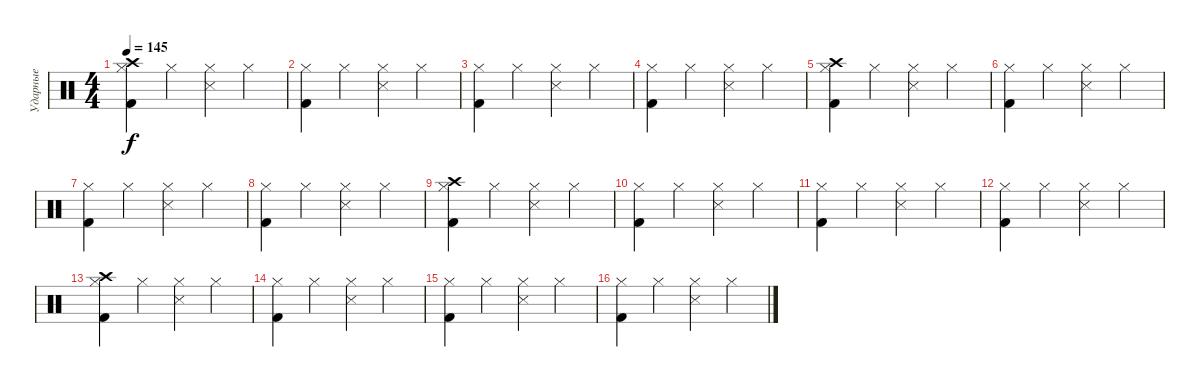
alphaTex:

\track ("Ударные" "Ударные") {instrument percussion}
\staff {score}
\articulation defaults
\ts (4 4)
\tempo 145
\clef neutral
\ks c
("Crash high (hit)" "Hi-Hat (closed)" "Kick (hit) 2").4{dy f} "Hi-Hat (closed)".4 ("Snare (side stick) 3" "Hi-Hat (closed)").4 "Hi-Hat (closed)".4 |
("Kick (hit) 2" "Hi-Hat (closed)").4 "Hi-Hat (closed)".4 ("Snare (side stick) 3" "Hi-Hat (closed)").4 "Hi-Hat (closed)".4 |
("Kick (hit) 2" "Hi-Hat (closed)").4 "Hi-Hat (closed)".4 ("Snare (side stick) 3" "Hi-Hat (closed)").4 "Hi-Hat (closed)".4 |
("Hi-Hat (closed)" "Kick (hit) 2").4 "Hi-Hat (closed)".4 ("Snare (side stick) 3" "Hi-Hat (closed)").4 "Hi-Hat (closed)".4 |
("Crash high (hit)" "Hi-Hat (closed)" "Kick (hit) 2").4 "Hi-Hat (closed)".4 ("Hi-Hat (closed)" "Snare (side stick) 3").4 "Hi-Hat (closed)".4 |
("Kick (hit) 2" "Hi-Hat (closed)").4 "Hi-Hat (closed)".4 ("Snare (side stick) 3" "Hi-Hat (closed)").4 "Hi-Hat (closed)".4 |
("Kick (hit) 2" "Hi-Hat (closed)").4 "Hi-Hat (closed)".4 ("Snare (side stick) 3" "Hi-Hat (closed)").4 "Hi-Hat (closed)".4 |
("Kick (hit) 2" "Hi-Hat (closed)").4 "Hi-Hat (closed)".4 ("Snare (side stick) 3" "Hi-Hat (closed)").4 "Hi-Hat (closed)".4 |
("Crash high (hit)" "Hi-Hat (closed)" "Kick (hit) 2").4 "Hi-Hat (closed)".4 ("Snare (side stick) 3" "Hi-Hat (closed)").4 "Hi-Hat (closed)".4 |
("Kick (hit) 2" "Hi-Hat (closed)").4 "Hi-Hat (closed)".4 ("Snare (side stick) 3" "Hi-Hat (closed)").4 "Hi-Hat (closed)".4 |
("Kick (hit) 2" "Hi-Hat (closed)").4 "Hi-Hat (closed)".4 ("Snare (side stick) 3" "Hi-Hat (closed)").4 "Hi-Hat (closed)".4 |
("Hi-Hat (closed)" "Kick (hit) 2").4 "Hi-Hat (closed)".4 ("Hi-Hat (closed)" "Snare (side stick) 3").4 "Hi-Hat (closed)".4 |
("Crash high (hit)" "Kick (hit) 2" "Hi-Hat (closed)").4 "Hi-Hat (closed)".4 ("Hi-Hat (closed)" "Snare (side stick) 3").4 "Hi-Hat (closed)".4 |
("Kick (hit) 2" "Hi-Hat (closed)").4 "Hi-Hat (closed)".4 ("Hi-Hat (closed)" "Snare (side stick) 3").4 "Hi-Hat (closed)".4 |
("Kick (hit) 2" "Hi-Hat (closed)").4 "Hi-Hat (closed)".4 ("Snare (side stick) 3" "Hi-Hat (closed)").4 "Hi-Hat (closed)".4 |
("Hi-Hat (closed)" "Kick (hit) 2").4 "Hi-Hat (closed)".4 ("Hi-Hat (closed)" "Snare (side stick) 3").4 "Hi-Hat (closed)".4
